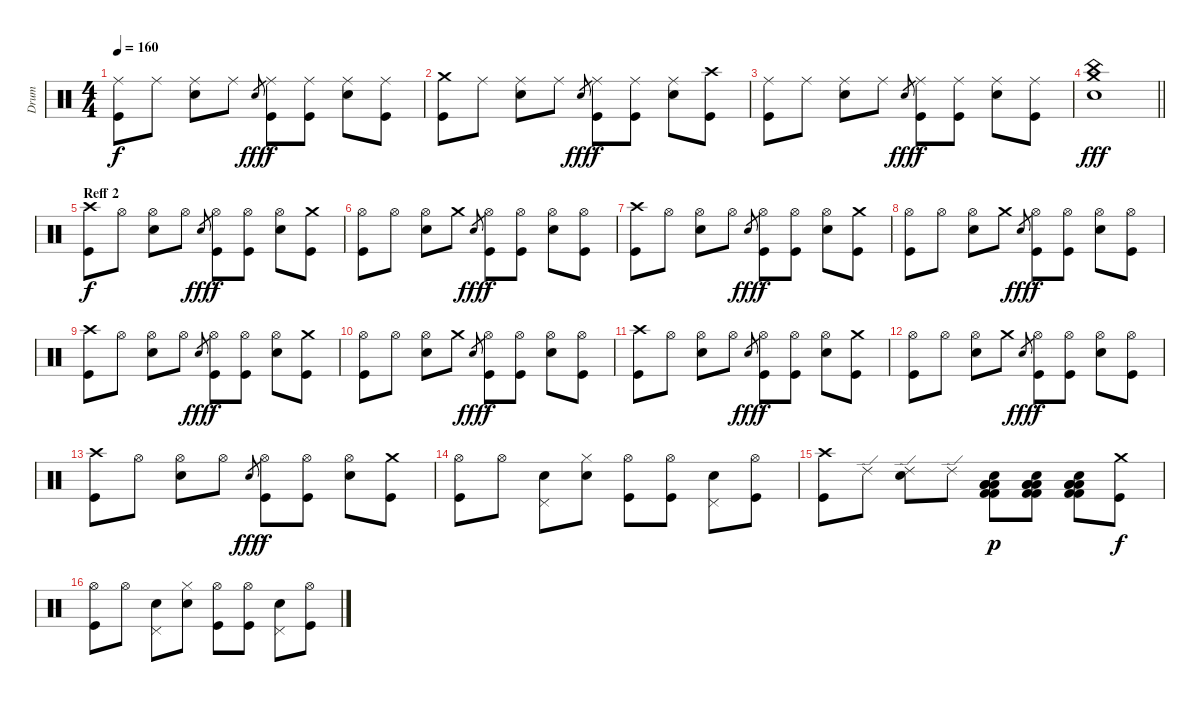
\track ("Drum" "Drum") {instrument percussion}
\staff {score}
\articulation defaults
\ts (4 4)
\tempo 160
\clef neutral
\ks c
("Ride (middle)" "Kick (hit)").8{dy f} "Ride (middle)".8 ("Ride (middle)" "Electric Snare (hit)").8 "Ride (middle)".8 "Electric Snare (hit)".8{gr dy fff} ("Ride (middle)" "Kick (hit)").8{dy f} ("Ride (middle)" "Kick (hit)").8 ("Ride (middle)" "Electric Snare (hit)").8 ("Ride (middle)" "Kick (hit)").8 |
("Crash medium (hit)" "Kick (hit)").8 "Ride (middle)".8 ("Ride (middle)" "Electric Snare (hit)").8 "Ride (middle)".8 "Electric Snare (hit)".8{gr dy fff} ("Ride (middle)" "Kick (hit)").8{dy f} ("Ride (middle)" "Kick (hit)").8 ("Ride (middle)" "Electric Snare (hit)").8 ("Crash high (hit)" "Kick (hit)").8 |
("Ride (middle)" "Kick (hit)").8 "Ride (middle)".8 ("Ride (middle)" "Electric Snare (hit)").8 "Ride (middle)".8 "Electric Snare (hit)".8{gr dy fff} ("Ride (middle)" "Kick (hit)").8{dy f} ("Ride (middle)" "Kick (hit)").8 ("Ride (middle)" "Electric Snare (hit)").8 ("Ride (middle)" "Kick (hit)").8 |
\barLineRight lightlight
("Crash medium (hit)" "China (hit)" "Electric Snare (hit)").1{dy fff} |
\section ("" "Reff 2")
("Crash high (hit)" "Kick (hit)").8{dy f} "Hi-Hat (open)".8 ("Hi-Hat (open)" "Electric Snare (hit)").8 "Hi-Hat (open)".8 "Electric Snare (hit)".8{gr dy fff} ("Hi-Hat (open)" "Kick (hit)").8{dy f} ("Hi-Hat (open)" "Kick (hit)").8 ("Hi-Hat (open)" "Electric Snare (hit)").8 ("Crash medium (hit)" "Kick (hit)").8 |
("Hi-Hat (open)" "Kick (hit)").8 "Hi-Hat (open)".8 ("Hi-Hat (open)" "Electric Snare (hit)").8 "Crash medium (hit)".8 "Electric Snare (hit)".8{gr dy fff} ("Hi-Hat (open)" "Kick (hit)").8{dy f} ("Hi-Hat (open)" "Kick (hit)").8 ("Hi-Hat (open)" "Electric Snare (hit)").8 ("Hi-Hat (open)" "Kick (hit)").8 |
("Crash high (hit)" "Kick (hit)").8 "Hi-Hat (open)".8 ("Hi-Hat (open)" "Electric Snare (hit)").8 "Hi-Hat (open)".8 "Electric Snare (hit)".8{gr dy fff} ("Hi-Hat (open)" "Kick (hit)").8{dy f} ("Hi-Hat (open)" "Kick (hit)").8 ("Hi-Hat (open)" "Electric Snare (hit)").8 ("Crash medium (hit)" "Kick (hit)").8 |
("Hi-Hat (open)" "Kick (hit)").8 "Hi-Hat (open)".8 ("Hi-Hat (open)" "Electric Snare (hit)").8 "Crash medium (hit)".8 "Electric Snare (hit)".8{gr dy fff} ("Hi-Hat (open)" "Kick (hit)").8{dy f} ("Hi-Hat (open)" "Kick (hit)").8 ("Hi-Hat (open)" "Electric Snare (hit)").8 ("Hi-Hat (open)" "Kick (hit)").8 |
("Crash high (hit)" "Kick (hit)").8 "Hi-Hat (open)".8 ("Hi-Hat (open)" "Electric Snare (hit)").8 "Hi-Hat (open)".8 "Electric Snare (hit)".8{gr dy fff} ("Hi-Hat (open)" "Kick (hit)").8{dy f} ("Hi-Hat (open)" "Kick (hit)").8 ("Hi-Hat (open)" "Electric Snare (hit)").8 ("Crash medium (hit)" "Kick (hit)").8 |
("Hi-Hat (open)" "Kick (hit)").8 "Hi-Hat (open)".8 ("Hi-Hat (open)" "Electric Snare (hit)").8 "Crash medium (hit)".8 "Electric Snare (hit)".8{gr dy fff} ("Hi-Hat (open)" "Kick (hit)").8{dy f} ("Hi-Hat (open)" "Kick (hit)").8 ("Hi-Hat (open)" "Electric Snare (hit)").8 ("Hi-Hat (open)" "Kick (hit)").8 |
("Crash high (hit)" "Kick (hit)").8 "Hi-Hat (open)".8 ("Hi-Hat (open)" "Electric Snare (hit)").8 "Hi-Hat (open)".8 "Electric Snare (hit)".8{gr dy fff} ("Hi-Hat (open)" "Kick (hit)").8{dy f} ("Hi-Hat (open)" "Kick (hit)").8 ("Hi-Hat (open)" "Electric Snare (hit)").8 ("Crash medium (hit)" "Kick (hit)").8 |
("Hi-Hat (open)" "Kick (hit)").8 "Hi-Hat (open)".8 ("Hi-Hat (open)" "Electric Snare (hit)").8 "Crash medium (hit)".8 "Electric Snare (hit)".8{gr dy fff} ("Hi-Hat (open)" "Kick (hit)").8{dy f} ("Hi-Hat (open)" "Kick (hit)").8 ("Hi-Hat (open)" "Electric Snare (hit)").8 ("Hi-Hat (open)" "Kick (hit)").8 |
("Crash high (hit)" "Kick (hit)").8 "Hi-Hat (open)".8 ("Hi-Hat (open)" "Electric Snare (hit)").8 "Hi-Hat (open)".8 "Electric Snare (hit)".8{gr dy fff} ("Hi-Hat (open)" "Kick (hit)").8{dy f} ("Hi-Hat (open)" "Kick (hit)").8 ("Hi-Hat (open)" "Electric Snare (hit)").8 ("Crash medium (hit)" "Kick (hit)").8 |
("Hi-Hat (open)" "Kick (hit)").8 "Hi-Hat (open)".8 ("Pedal Hi-Hat (hit)" "Electric Snare (hit)").8 ("Hi-Hat (closed)" "Electric Snare (hit)").8 ("Hi-Hat (open)" "Kick (hit)").8 ("Hi-Hat (open)" "Kick (hit)").8 ("Pedal Hi-Hat (hit)" "Electric Snare (hit)").8 ("Hi-Hat (open)" "Kick (hit)").8 |
("Crash high (hit)" "Kick (hit)").8 "Ride (edge) 2".8 ("Ride (edge) 2" "Electric Snare (hit)").8 "Ride (edge) 2".8 ("Low Tom (hit)" "Low Floor Tom (hit)" "Low Floor Tom (hit)" "Kick (hit) 2" "Snare (hit) 2" "Kick (hit) 2").8{dy p} ("Low Tom (hit)" "Low Floor Tom (hit)" "Low Floor Tom (hit)" "Kick (hit) 2" "Snare (hit) 2" "Kick (hit) 2").8 ("Low Tom (hit)" "Low Floor Tom (hit)" "Low Floor Tom (hit)" "Kick (hit) 2" "Snare (hit) 2" "Kick (hit) 2").8 ("Crash medium (hit)" "Kick (hit)").8{dy f} |
("Hi-Hat (open)" "Kick (hit)").8 "Hi-Hat (open)".8 ("Pedal Hi-Hat (hit)" "Electric Snare (hit)").8 ("Hi-Hat (closed)" "Electric Snare (hit)").8 ("Hi-Hat (open)" "Kick (hit)").8 ("Hi-Hat (open)" "Kick (hit)").8 ("Pedal Hi-Hat (hit)" "Electric Snare (hit)").8 ("Hi-Hat (open)" "Kick (hit)").8
